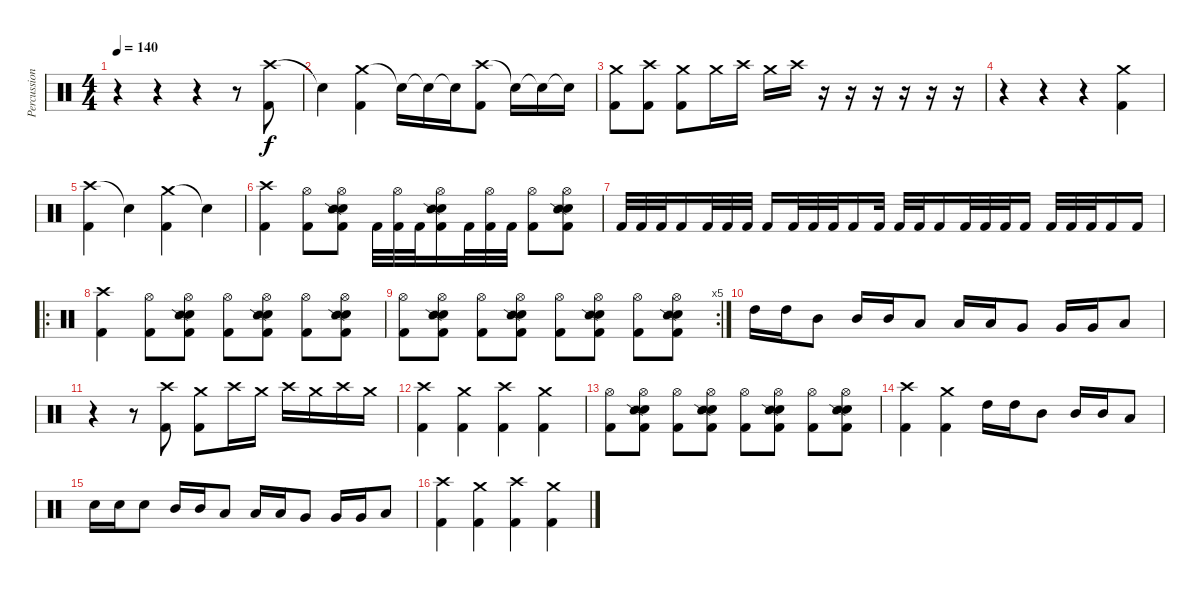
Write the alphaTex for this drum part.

\track ("Percussion" "Percussion") {instrument percussion}
\staff {score}
\articulation defaults
\ts (4 4)
\tempo 140
\clef neutral
\ks c
r.4{dy f} r.4 r.4 r.8 ("Crash high (hit)" "Kick (hit) 2").8 |
"Snare (hit)"{t}.4 ("Crash medium (hit)" "Kick (hit) 2").4 "Snare (hit)"{t}.16 "Snare (hit)"{t}.16 "Snare (hit)"{t}.16 ("Crash high (hit)" "Kick (hit) 2").8 "Snare (hit)"{t}.16 "Snare (hit)"{t}.16 "Snare (hit)"{t}.16 |
("Crash medium (hit)" "Kick (hit) 2").8 ("Crash high (hit)" "Kick (hit) 2").8 ("Crash medium (hit)" "Kick (hit) 2").8 "Crash medium (hit)".16 "Crash high (hit)".16 "Crash medium (hit)".16 "Crash high (hit)".16 r.16 r.16 r.16 r.16 r.16 r.16 |
r.4 r.4 r.4 ("Crash medium (hit)" "Kick (hit) 2").4 |
("Crash high (hit)" "Kick (hit) 2").4 "Snare (hit)"{t}.4 ("Crash medium (hit)" "Kick (hit) 2").4 "Snare (hit)"{t}.4 |
("Crash high (hit)" "Kick (hit) 2").4 ("Hi-Hat (open)" "Kick (hit) 2").8 ("Hi-Hat (open)" "Electric Snare (hit)" "Snare (side stick) 2" "Kick (hit) 2").8 "Kick (hit) 2".32 ("Hi-Hat (open)" "Kick (hit) 2").32 "Kick (hit) 2".32 ("Hi-Hat (open)" "Electric Snare (hit)" "Snare (side stick) 2" "Kick (hit) 2").16 "Kick (hit) 2".32 ("Hi-Hat (open)" "Kick (hit) 2").32 "Kick (hit) 2".32 ("Hi-Hat (open)" "Kick (hit) 2").8 ("Hi-Hat (open)" "Electric Snare (hit)" "Snare (side stick) 2" "Kick (hit) 2").8 |
"Kick (hit) 2".32 "Kick (hit) 2".32 "Kick (hit) 2".32 "Kick (hit) 2".16 "Kick (hit) 2".32 "Kick (hit) 2".32 "Kick (hit) 2".32 "Kick (hit) 2".16 "Kick (hit) 2".32 "Kick (hit) 2".32 "Kick (hit) 2".32 "Kick (hit) 2".16 "Kick (hit) 2".32 "Kick (hit) 2".32 "Kick (hit) 2".32 "Kick (hit) 2".16 "Kick (hit) 2".32 "Kick (hit) 2".32 "Kick (hit) 2".32 "Kick (hit) 2".16 "Kick (hit) 2".32 "Kick (hit) 2".32 "Kick (hit) 2".32 "Kick (hit) 2".16 "Kick (hit) 2".16 |
\ro
("Crash high (hit)" "Kick (hit) 2").4 ("Hi-Hat (open)" "Kick (hit) 2").8 ("Hi-Hat (open)" "Electric Snare (hit)" "Snare (side stick) 2" "Kick (hit) 2").8 ("Hi-Hat (open)" "Kick (hit) 2").8 ("Hi-Hat (open)" "Electric Snare (hit)" "Snare (side stick) 2" "Kick (hit) 2").8 ("Hi-Hat (open)" "Kick (hit) 2").8 ("Hi-Hat (open)" "Electric Snare (hit)" "Snare (side stick) 2" "Kick (hit) 2").8 |
\rc 5
("Hi-Hat (open)" "Kick (hit) 2").8 ("Hi-Hat (open)" "Electric Snare (hit)" "Snare (side stick) 2" "Kick (hit) 2").8 ("Hi-Hat (open)" "Kick (hit) 2").8 ("Hi-Hat (open)" "Electric Snare (hit)" "Snare (side stick) 2" "Kick (hit) 2").8 ("Hi-Hat (open)" "Kick (hit) 2").8 ("Hi-Hat (open)" "Electric Snare (hit)" "Snare (side stick) 2" "Kick (hit) 2").8 ("Hi-Hat (open)" "Kick (hit) 2").8 ("Hi-Hat (open)" "Electric Snare (hit)" "Snare (side stick) 2" "Kick (hit) 2").8 |
"High Tom (hit)".16 "High Tom (hit)".16 "Mid Tom (hit)".8 "Mid Tom (hit)".16 "Mid Tom (hit)".16 "Low Tom (hit)".8 "Low Tom (hit)".16 "Low Tom (hit)".16 "Very Low Tom (hit)".8 "Very Low Tom (hit)".16 "Very Low Tom (hit)".16 "Low Floor Tom (hit)".8 |
r.4 r.8 ("Crash high (hit)" "Kick (hit) 2").8 ("Crash medium (hit)" "Kick (hit) 2").8 "Crash high (hit)".16 "Crash medium (hit)".16 "Crash high (hit)".16 "Crash medium (hit)".16 "Crash high (hit)".16 "Crash medium (hit)".16 |
("Crash high (hit)" "Kick (hit) 2").4 ("Crash medium (hit)" "Kick (hit) 2").4 ("Crash high (hit)" "Kick (hit) 2").4 ("Crash medium (hit)" "Kick (hit) 2").4 |
("Hi-Hat (open)" "Kick (hit) 2").8 ("Hi-Hat (open)" "Electric Snare (hit)" "Snare (side stick) 2" "Kick (hit) 2").8 ("Hi-Hat (open)" "Kick (hit) 2").8 ("Hi-Hat (open)" "Electric Snare (hit)" "Snare (side stick) 2" "Kick (hit) 2").8 ("Hi-Hat (open)" "Kick (hit) 2").8 ("Hi-Hat (open)" "Electric Snare (hit)" "Snare (side stick) 2" "Kick (hit) 2").8 ("Hi-Hat (open)" "Kick (hit) 2").8 ("Hi-Hat (open)" "Electric Snare (hit)" "Snare (side stick) 2" "Kick (hit) 2").8 |
("Crash high (hit)" "Kick (hit) 2").4 ("Crash medium (hit)" "Kick (hit) 2").4 "High Tom (hit)".16 "High Tom (hit)".16 "Mid Tom (hit)".8 "Mid Tom (hit)".16 "Mid Tom (hit)".16 "Low Tom (hit)".8 |
"Electric Snare (hit)".16 "Electric Snare (hit)".16 "Electric Snare (hit)".8 "Mid Tom (hit)".16 "Mid Tom (hit)".16 "Low Tom (hit)".8 "Low Tom (hit)".16 "Low Tom (hit)".16 "Very Low Tom (hit)".8 "Very Low Tom (hit)".16 "Very Low Tom (hit)".16 "Low Floor Tom (hit)".8 |
("Crash high (hit)" "Kick (hit) 2").4 ("Crash medium (hit)" "Kick (hit) 2").4 ("Crash high (hit)" "Kick (hit) 2").4 ("Crash medium (hit)" "Kick (hit) 2").4
